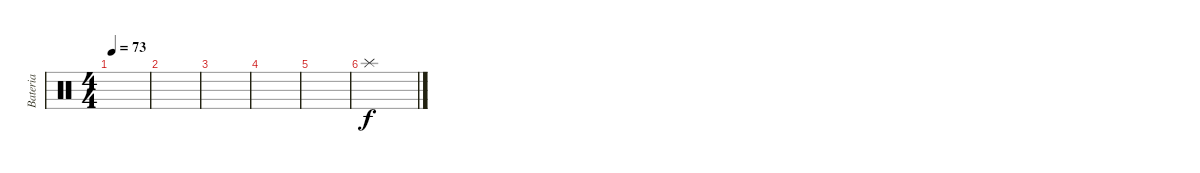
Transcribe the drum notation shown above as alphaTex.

\track ("Bateria" "Bateria") {instrument percussion}
\staff {score}
\articulation defaults
\ts (4 4)
\tempo 73
\clef neutral
\ks c
|
|
|
|
|
"Splash (hit)".1
